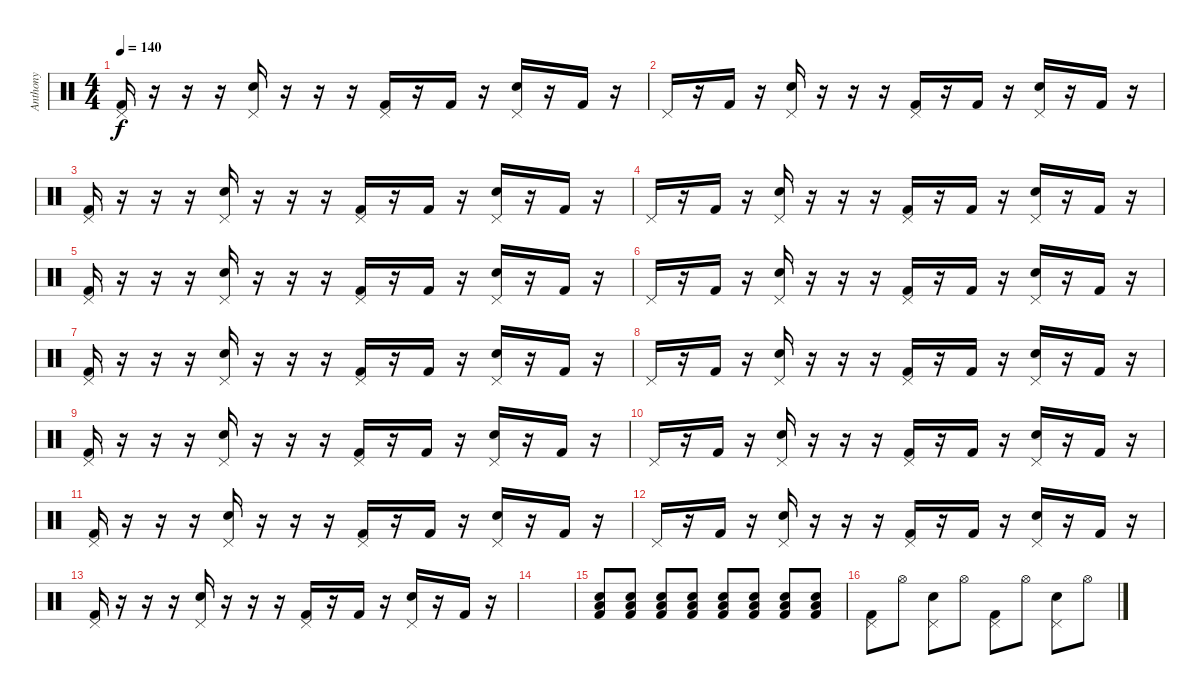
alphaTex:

\track ("Anthony" "Anthony") {instrument percussion}
\staff {score}
\articulation defaults
\ts (4 4)
\tempo 140
\clef neutral
\ks c
("Pedal Hi-Hat (hit)" "Kick (hit) 2").16{dy f} r.16 r.16 r.16 ("Pedal Hi-Hat (hit)" "Snare (hit) 2").16 r.16 r.16 r.16 ("Pedal Hi-Hat (hit)" "Kick (hit) 2").16 r.16 "Kick (hit) 2".16 r.16 ("Pedal Hi-Hat (hit)" "Snare (hit) 2").16 r.16 "Kick (hit) 2".16 r.16 |
"Pedal Hi-Hat (hit)".16 r.16 "Kick (hit) 2".16 r.16 ("Pedal Hi-Hat (hit)" "Snare (hit) 2").16 r.16 r.16 r.16 ("Pedal Hi-Hat (hit)" "Kick (hit) 2").16 r.16 "Kick (hit) 2".16 r.16 ("Pedal Hi-Hat (hit)" "Snare (hit) 2").16 r.16 "Kick (hit) 2".16 r.16 |
("Pedal Hi-Hat (hit)" "Kick (hit) 2").16 r.16 r.16 r.16 ("Pedal Hi-Hat (hit)" "Snare (hit) 2").16 r.16 r.16 r.16 ("Pedal Hi-Hat (hit)" "Kick (hit) 2").16 r.16 "Kick (hit) 2".16 r.16 ("Pedal Hi-Hat (hit)" "Snare (hit) 2").16 r.16 "Kick (hit) 2".16 r.16 |
"Pedal Hi-Hat (hit)".16 r.16 "Kick (hit) 2".16 r.16 ("Pedal Hi-Hat (hit)" "Snare (hit) 2").16 r.16 r.16 r.16 ("Pedal Hi-Hat (hit)" "Kick (hit) 2").16 r.16 "Kick (hit) 2".16 r.16 ("Pedal Hi-Hat (hit)" "Snare (hit) 2").16 r.16 "Kick (hit) 2".16 r.16 |
("Pedal Hi-Hat (hit)" "Kick (hit) 2").16 r.16 r.16 r.16 ("Pedal Hi-Hat (hit)" "Snare (hit) 2").16 r.16 r.16 r.16 ("Pedal Hi-Hat (hit)" "Kick (hit) 2").16 r.16 "Kick (hit) 2".16 r.16 ("Pedal Hi-Hat (hit)" "Snare (hit) 2").16 r.16 "Kick (hit) 2".16 r.16 |
"Pedal Hi-Hat (hit)".16 r.16 "Kick (hit) 2".16 r.16 ("Pedal Hi-Hat (hit)" "Snare (hit) 2").16 r.16 r.16 r.16 ("Pedal Hi-Hat (hit)" "Kick (hit) 2").16 r.16 "Kick (hit) 2".16 r.16 ("Pedal Hi-Hat (hit)" "Snare (hit) 2").16 r.16 "Kick (hit) 2".16 r.16 |
("Pedal Hi-Hat (hit)" "Kick (hit) 2").16 r.16 r.16 r.16 ("Pedal Hi-Hat (hit)" "Snare (hit) 2").16 r.16 r.16 r.16 ("Pedal Hi-Hat (hit)" "Kick (hit) 2").16 r.16 "Kick (hit) 2".16 r.16 ("Pedal Hi-Hat (hit)" "Snare (hit) 2").16 r.16 "Kick (hit) 2".16 r.16 |
"Pedal Hi-Hat (hit)".16 r.16 "Kick (hit) 2".16 r.16 ("Pedal Hi-Hat (hit)" "Snare (hit) 2").16 r.16 r.16 r.16 ("Pedal Hi-Hat (hit)" "Kick (hit) 2").16 r.16 "Kick (hit) 2".16 r.16 ("Pedal Hi-Hat (hit)" "Snare (hit) 2").16 r.16 "Kick (hit) 2".16 r.16 |
("Pedal Hi-Hat (hit)" "Kick (hit) 2").16 r.16 r.16 r.16 ("Pedal Hi-Hat (hit)" "Snare (hit) 2").16 r.16 r.16 r.16 ("Pedal Hi-Hat (hit)" "Kick (hit) 2").16 r.16 "Kick (hit) 2".16 r.16 ("Pedal Hi-Hat (hit)" "Snare (hit) 2").16 r.16 "Kick (hit) 2".16 r.16 |
"Pedal Hi-Hat (hit)".16 r.16 "Kick (hit) 2".16 r.16 ("Pedal Hi-Hat (hit)" "Snare (hit) 2").16 r.16 r.16 r.16 ("Pedal Hi-Hat (hit)" "Kick (hit) 2").16 r.16 "Kick (hit) 2".16 r.16 ("Pedal Hi-Hat (hit)" "Snare (hit) 2").16 r.16 "Kick (hit) 2".16 r.16 |
("Pedal Hi-Hat (hit)" "Kick (hit) 2").16 r.16 r.16 r.16 ("Pedal Hi-Hat (hit)" "Snare (hit) 2").16 r.16 r.16 r.16 ("Pedal Hi-Hat (hit)" "Kick (hit) 2").16 r.16 "Kick (hit) 2".16 r.16 ("Pedal Hi-Hat (hit)" "Snare (hit) 2").16 r.16 "Kick (hit) 2".16 r.16 |
"Pedal Hi-Hat (hit)".16 r.16 "Kick (hit) 2".16 r.16 ("Pedal Hi-Hat (hit)" "Snare (hit) 2").16 r.16 r.16 r.16 ("Pedal Hi-Hat (hit)" "Kick (hit) 2").16 r.16 "Kick (hit) 2".16 r.16 ("Pedal Hi-Hat (hit)" "Snare (hit) 2").16 r.16 "Kick (hit) 2".16 r.16 |
("Pedal Hi-Hat (hit)" "Kick (hit) 2").16 r.16 r.16 r.16 ("Pedal Hi-Hat (hit)" "Snare (hit) 2").16 r.16 r.16 r.16 ("Pedal Hi-Hat (hit)" "Kick (hit) 2").16 r.16 "Kick (hit) 2".16 r.16 ("Pedal Hi-Hat (hit)" "Snare (hit) 2").16 r.16 "Kick (hit) 2".16 r.16 |
|
("Snare (hit) 2" "Low Tom (hit)" "Kick (hit) 2").8 ("Snare (hit) 2" "Low Tom (hit)" "Kick (hit) 2").8 ("Snare (hit) 2" "Low Tom (hit)" "Kick (hit) 2").8 ("Snare (hit) 2" "Low Tom (hit)" "Kick (hit) 2").8 ("Snare (hit) 2" "Low Tom (hit)" "Kick (hit) 2").8 ("Snare (hit) 2" "Low Tom (hit)" "Kick (hit) 2").8 ("Snare (hit) 2" "Low Tom (hit)" "Kick (hit) 2").8 ("Snare (hit) 2" "Low Tom (hit)" "Kick (hit) 2").8 |
("Pedal Hi-Hat (hit)" "Kick (hit) 2").8 "Hi-Hat (open)".8 ("Pedal Hi-Hat (hit)" "Snare (hit) 2").8 "Hi-Hat (open)".8 ("Pedal Hi-Hat (hit)" "Kick (hit) 2").8 "Hi-Hat (open)".8 ("Pedal Hi-Hat (hit)" "Snare (hit) 2").8 "Hi-Hat (open)".8
